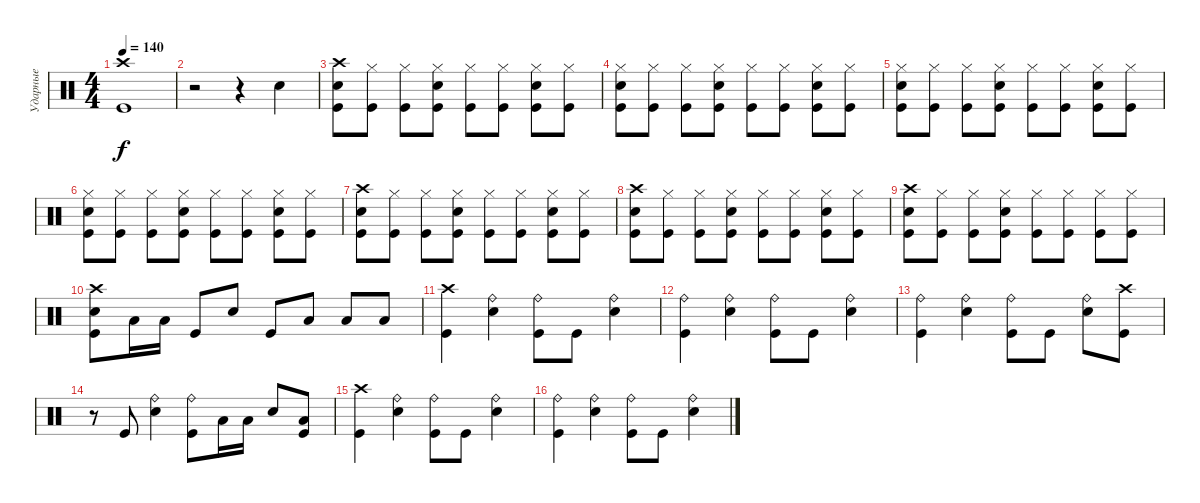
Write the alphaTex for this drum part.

\track ("Ударные" "Ударные") {instrument percussion}
\staff {score}
\articulation defaults
\ts (4 4)
\tempo 140
\clef neutral
\ks c
("Crash high (hit)" "Kick (hit)").1{dy f} |
r.2 r.4 "Electric Snare (hit)".4 |
("Crash high (hit)" "Electric Snare (hit)" "Kick (hit)").8 ("Hi-Hat (closed)" "Kick (hit)").8 ("Hi-Hat (closed)" "Kick (hit)").8 ("Hi-Hat (closed)" "Electric Snare (hit)" "Kick (hit)").8 ("Hi-Hat (closed)" "Kick (hit)").8 ("Hi-Hat (closed)" "Kick (hit)").8 ("Hi-Hat (closed)" "Electric Snare (hit)" "Kick (hit)").8 ("Hi-Hat (closed)" "Kick (hit)").8 |
("Hi-Hat (closed)" "Electric Snare (hit)" "Kick (hit)").8 ("Hi-Hat (closed)" "Kick (hit)").8 ("Hi-Hat (closed)" "Kick (hit)").8 ("Hi-Hat (closed)" "Electric Snare (hit)" "Kick (hit)").8 ("Hi-Hat (closed)" "Kick (hit)").8 ("Hi-Hat (closed)" "Kick (hit)").8 ("Hi-Hat (closed)" "Electric Snare (hit)" "Kick (hit)").8 ("Hi-Hat (closed)" "Kick (hit)").8 |
("Hi-Hat (closed)" "Electric Snare (hit)" "Kick (hit)").8 ("Hi-Hat (closed)" "Kick (hit)").8 ("Hi-Hat (closed)" "Kick (hit)").8 ("Hi-Hat (closed)" "Electric Snare (hit)" "Kick (hit)").8 ("Hi-Hat (closed)" "Kick (hit)").8 ("Hi-Hat (closed)" "Kick (hit)").8 ("Hi-Hat (closed)" "Electric Snare (hit)" "Kick (hit)").8 ("Hi-Hat (closed)" "Kick (hit)").8 |
("Hi-Hat (closed)" "Electric Snare (hit)" "Kick (hit)").8 ("Hi-Hat (closed)" "Kick (hit)").8 ("Hi-Hat (closed)" "Kick (hit)").8 ("Hi-Hat (closed)" "Electric Snare (hit)" "Kick (hit)").8 ("Hi-Hat (closed)" "Kick (hit)").8 ("Hi-Hat (closed)" "Kick (hit)").8 ("Hi-Hat (closed)" "Electric Snare (hit)" "Kick (hit)").8 ("Hi-Hat (closed)" "Kick (hit)").8 |
("Crash high (hit)" "Electric Snare (hit)" "Kick (hit)").8 ("Hi-Hat (closed)" "Kick (hit)").8 ("Hi-Hat (closed)" "Kick (hit)").8 ("Hi-Hat (closed)" "Electric Snare (hit)" "Kick (hit)").8 ("Hi-Hat (closed)" "Kick (hit)").8 ("Hi-Hat (closed)" "Kick (hit)").8 ("Hi-Hat (closed)" "Electric Snare (hit)" "Kick (hit)").8 ("Hi-Hat (closed)" "Kick (hit)").8 |
("Crash high (hit)" "Electric Snare (hit)" "Kick (hit)").8 ("Hi-Hat (closed)" "Kick (hit)").8 ("Hi-Hat (closed)" "Kick (hit)").8 ("Hi-Hat (closed)" "Electric Snare (hit)" "Kick (hit)").8 ("Hi-Hat (closed)" "Kick (hit)").8 ("Hi-Hat (closed)" "Kick (hit)").8 ("Hi-Hat (closed)" "Electric Snare (hit)" "Kick (hit)").8 ("Hi-Hat (closed)" "Kick (hit)").8 |
("Crash high (hit)" "Electric Snare (hit)" "Kick (hit)").8 ("Hi-Hat (closed)" "Kick (hit)").8 ("Hi-Hat (closed)" "Kick (hit)").8 ("Hi-Hat (closed)" "Electric Snare (hit)" "Kick (hit)").8 ("Hi-Hat (closed)" "Kick (hit)").8 ("Hi-Hat (closed)" "Kick (hit)").8 ("Hi-Hat (closed)" "Kick (hit)").8 ("Hi-Hat (closed)" "Kick (hit)").8 |
("Crash high (hit)" "Electric Snare (hit)" "Kick (hit)").8 "Low Tom (hit)".16 "Low Tom (hit)".16 "Kick (hit)".8 "Electric Snare (hit)".8 "Kick (hit)".8 "Low Tom (hit)".8 "Low Tom (hit)".8 "Low Tom (hit)".8 |
("Crash high (hit)" "Kick (hit)").4 ("Ride (bell)" "Electric Snare (hit)").4 ("Ride (bell)" "Kick (hit)").8 "Kick (hit)".8 ("Ride (bell)" "Electric Snare (hit)").4 |
("Ride (bell)" "Kick (hit)").4 ("Ride (bell)" "Electric Snare (hit)").4 ("Ride (bell)" "Kick (hit)").8 "Kick (hit)".8 ("Ride (bell)" "Electric Snare (hit)").4 |
("Ride (bell)" "Kick (hit)").4 ("Ride (bell)" "Electric Snare (hit)").4 ("Ride (bell)" "Kick (hit)").8 "Kick (hit)".8 ("Ride (bell)" "Electric Snare (hit)").8 ("Crash high (hit)" "Kick (hit)").8 |
r.8 "Kick (hit)".8 ("Ride (bell)" "Electric Snare (hit)").4 ("Ride (bell)" "Kick (hit)").8 "Low Tom (hit)".16 "Low Tom (hit)".16 "Electric Snare (hit)".8 ("Low Tom (hit)" "Kick (hit)").8 |
("Crash high (hit)" "Kick (hit)").4 ("Ride (bell)" "Electric Snare (hit)").4 ("Ride (bell)" "Kick (hit)").8 "Kick (hit)".8 ("Ride (bell)" "Electric Snare (hit)").4 |
("Ride (bell)" "Kick (hit)").4 ("Ride (bell)" "Electric Snare (hit)").4 ("Ride (bell)" "Kick (hit)").8 "Kick (hit)".8 ("Ride (bell)" "Electric Snare (hit)").4
